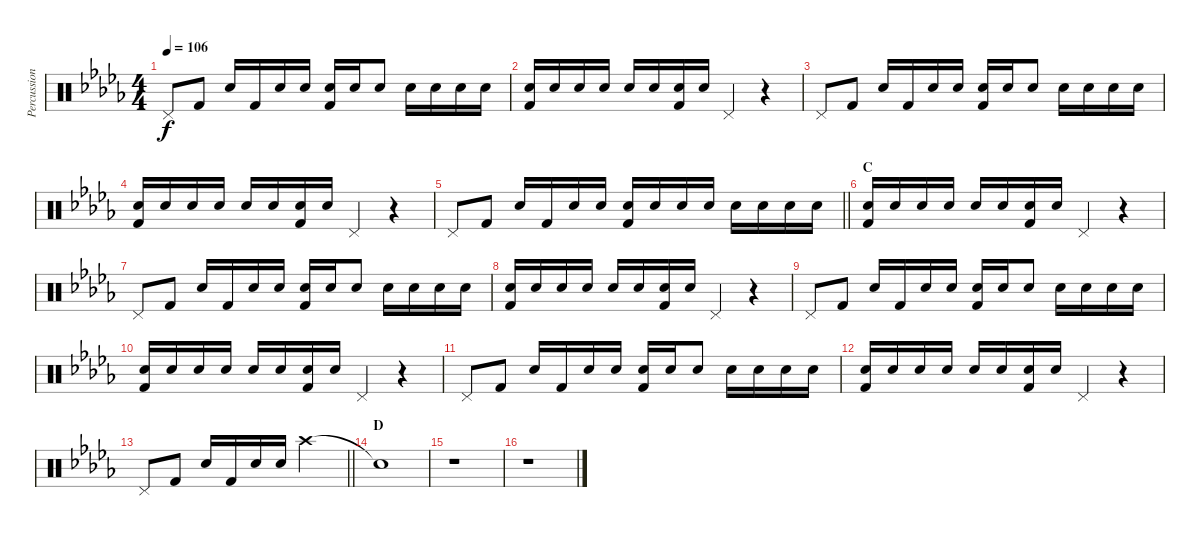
\track ("Percussion" "Percussion") {instrument percussion}
\staff {score}
\articulation defaults
\ts (4 4)
\tempo 106
\clef neutral
\ks db "Pedal Hi-Hat (hit)".8{dy f} "Kick (hit) 2".8 "Electric Snare (hit)".16 "Kick (hit) 2".16 "Electric Snare (hit)".16 "Electric Snare (hit)".16
("Electric Snare (hit)" "Kick (hit) 2").16 "Electric Snare (hit)".16 "Electric Snare (hit)".8 "Electric Snare (hit)".16 "Electric Snare (hit)".16 "Electric Snare (hit)".16 "Electric Snare (hit)".16 |
("Electric Snare (hit)" "Kick (hit) 2").16 "Electric Snare (hit)".16 "Electric Snare (hit)".16 "Electric Snare (hit)".16 "Electric Snare (hit)".16 "Electric Snare (hit)".16 ("Electric Snare (hit)" "Kick (hit) 2").16 "Electric Snare (hit)".16 "Pedal Hi-Hat (hit)".4 r.4 |
"Pedal Hi-Hat (hit)".8 "Kick (hit) 2".8 "Electric Snare (hit)".16 "Kick (hit) 2".16 "Electric Snare (hit)".16 "Electric Snare (hit)".16 ("Electric Snare (hit)" "Kick (hit) 2").16 "Electric Snare (hit)".16 "Electric Snare (hit)".8 "Electric Snare (hit)".16 "Electric Snare (hit)".16 "Electric Snare (hit)".16 "Electric Snare (hit)".16 |
("Electric Snare (hit)" "Kick (hit) 2").16 "Electric Snare (hit)".16 "Electric Snare (hit)".16 "Electric Snare (hit)".16 "Electric Snare (hit)".16 "Electric Snare (hit)".16 ("Electric Snare (hit)" "Kick (hit) 2").16 "Electric Snare (hit)".16 "Pedal Hi-Hat (hit)".4 r.4 |
\barLineRight lightlight "Pedal Hi-Hat (hit)".8 "Kick (hit) 2".8 "Electric Snare (hit)".16 "Kick (hit) 2".16 "Electric Snare (hit)".16 "Electric Snare (hit)".16
("Electric Snare (hit)" "Kick (hit) 2").16 "Electric Snare (hit)".16 "Electric Snare (hit)".16 "Electric Snare (hit)".16 "Electric Snare (hit)".16 "Electric Snare (hit)".16 "Electric Snare (hit)".16 "Electric Snare (hit)".16 |
\section ("" "C")
("Electric Snare (hit)" "Kick (hit) 2").16 "Electric Snare (hit)".16 "Electric Snare (hit)".16 "Electric Snare (hit)".16 "Electric Snare (hit)".16 "Electric Snare (hit)".16 ("Electric Snare (hit)" "Kick (hit) 2").16 "Electric Snare (hit)".16 "Pedal Hi-Hat (hit)".4 r.4 |
"Pedal Hi-Hat (hit)".8 "Kick (hit) 2".8 "Electric Snare (hit)".16 "Kick (hit) 2".16 "Electric Snare (hit)".16 "Electric Snare (hit)".16 ("Electric Snare (hit)" "Kick (hit) 2").16 "Electric Snare (hit)".16 "Electric Snare (hit)".8 "Electric Snare (hit)".16 "Electric Snare (hit)".16 "Electric Snare (hit)".16 "Electric Snare (hit)".16 |
("Electric Snare (hit)" "Kick (hit) 2").16 "Electric Snare (hit)".16 "Electric Snare (hit)".16 "Electric Snare (hit)".16 "Electric Snare (hit)".16 "Electric Snare (hit)".16 ("Electric Snare (hit)" "Kick (hit) 2").16 "Electric Snare (hit)".16 "Pedal Hi-Hat (hit)".4 r.4 |
"Pedal Hi-Hat (hit)".8 "Kick (hit) 2".8 "Electric Snare (hit)".16 "Kick (hit) 2".16 "Electric Snare (hit)".16 "Electric Snare (hit)".16 ("Electric Snare (hit)" "Kick (hit) 2").16 "Electric Snare (hit)".16 "Electric Snare (hit)".8 "Electric Snare (hit)".16 "Electric Snare (hit)".16 "Electric Snare (hit)".16 "Electric Snare (hit)".16 |
("Electric Snare (hit)" "Kick (hit) 2").16 "Electric Snare (hit)".16 "Electric Snare (hit)".16 "Electric Snare (hit)".16 "Electric Snare (hit)".16 "Electric Snare (hit)".16 ("Electric Snare (hit)" "Kick (hit) 2").16 "Electric Snare (hit)".16 "Pedal Hi-Hat (hit)".4 r.4 |
"Pedal Hi-Hat (hit)".8 "Kick (hit) 2".8 "Electric Snare (hit)".16 "Kick (hit) 2".16 "Electric Snare (hit)".16 "Electric Snare (hit)".16 ("Electric Snare (hit)" "Kick (hit) 2").16 "Electric Snare (hit)".16 "Electric Snare (hit)".8 "Electric Snare (hit)".16 "Electric Snare (hit)".16 "Electric Snare (hit)".16 "Electric Snare (hit)".16 |
("Electric Snare (hit)" "Kick (hit) 2").16 "Electric Snare (hit)".16 "Electric Snare (hit)".16 "Electric Snare (hit)".16 "Electric Snare (hit)".16 "Electric Snare (hit)".16 ("Electric Snare (hit)" "Kick (hit) 2").16 "Electric Snare (hit)".16 "Pedal Hi-Hat (hit)".4 r.4 |
\barLineRight lightlight "Pedal Hi-Hat (hit)".8 "Kick (hit) 2".8 "Electric Snare (hit)".16 "Kick (hit) 2".16 "Electric Snare (hit)".16 "Electric Snare (hit)".16 "Crash high (hit)".2
|
\section ("" "D")
"Snare (hit)"{t}.1 |
r.1 |
r.1
